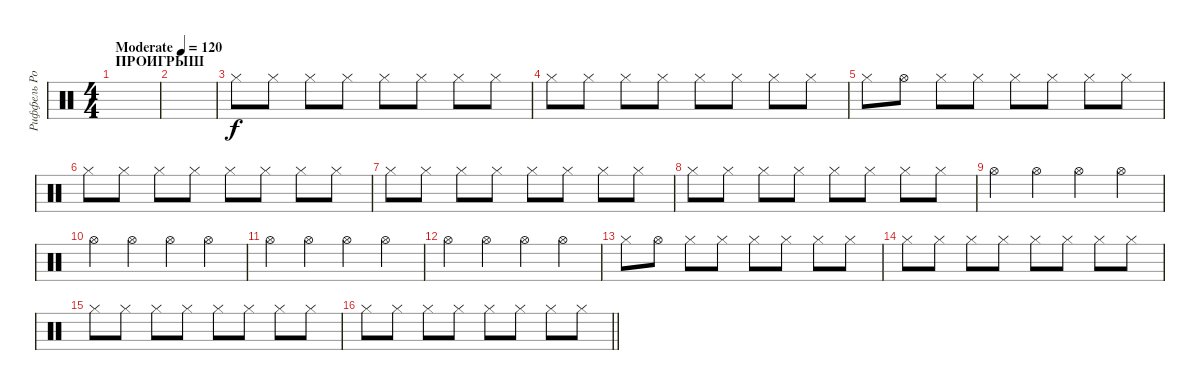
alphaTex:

\track ("Риффель Роман (хэты)" "Риффель Ро") {instrument percussion}
\staff {score}
\articulation defaults
\ts (4 4)
\section ("" "ПРОИГРЫШ")
\tempo (120 "Moderate")
\clef neutral
\ks c
|
|
"Hi-Hat (closed)".8 "Hi-Hat (closed)".8 "Hi-Hat (closed)".8 "Hi-Hat (closed)".8 "Hi-Hat (closed)".8 "Hi-Hat (closed)".8 "Hi-Hat (closed)".8 "Hi-Hat (closed)".8 |
"Hi-Hat (closed)".8 "Hi-Hat (closed)".8 "Hi-Hat (closed)".8 "Hi-Hat (closed)".8 "Hi-Hat (closed)".8 "Hi-Hat (closed)".8 "Hi-Hat (closed)".8 "Hi-Hat (closed)".8 |
"Hi-Hat (closed)".8 "Hi-Hat (open)".8 "Hi-Hat (closed)".8 "Hi-Hat (closed)".8 "Hi-Hat (closed)".8 "Hi-Hat (closed)".8 "Hi-Hat (closed)".8 "Hi-Hat (closed)".8 |
"Hi-Hat (closed)".8 "Hi-Hat (closed)".8 "Hi-Hat (closed)".8 "Hi-Hat (closed)".8 "Hi-Hat (closed)".8 "Hi-Hat (closed)".8 "Hi-Hat (closed)".8 "Hi-Hat (closed)".8 |
"Hi-Hat (closed)".8 "Hi-Hat (closed)".8 "Hi-Hat (closed)".8 "Hi-Hat (closed)".8 "Hi-Hat (closed)".8 "Hi-Hat (closed)".8 "Hi-Hat (closed)".8 "Hi-Hat (closed)".8 |
"Hi-Hat (closed)".8 "Hi-Hat (closed)".8 "Hi-Hat (closed)".8 "Hi-Hat (closed)".8 "Hi-Hat (closed)".8 "Hi-Hat (closed)".8 "Hi-Hat (closed)".8 "Hi-Hat (closed)".8 |
"Hi-Hat (open)".4 "Hi-Hat (open)".4 "Hi-Hat (open)".4 "Hi-Hat (open)".4 |
"Hi-Hat (open)".4 "Hi-Hat (open)".4 "Hi-Hat (open)".4 "Hi-Hat (open)".4 |
"Hi-Hat (open)".4 "Hi-Hat (open)".4 "Hi-Hat (open)".4 "Hi-Hat (open)".4 |
"Hi-Hat (open)".4 "Hi-Hat (open)".4 "Hi-Hat (open)".4 "Hi-Hat (open)".4 |
"Hi-Hat (closed)".8 "Hi-Hat (open)".8 "Hi-Hat (closed)".8 "Hi-Hat (closed)".8 "Hi-Hat (closed)".8 "Hi-Hat (closed)".8 "Hi-Hat (closed)".8 "Hi-Hat (closed)".8 |
"Hi-Hat (closed)".8 "Hi-Hat (closed)".8 "Hi-Hat (closed)".8 "Hi-Hat (closed)".8 "Hi-Hat (closed)".8 "Hi-Hat (closed)".8 "Hi-Hat (closed)".8 "Hi-Hat (closed)".8 |
"Hi-Hat (closed)".8 "Hi-Hat (closed)".8 "Hi-Hat (closed)".8 "Hi-Hat (closed)".8 "Hi-Hat (closed)".8 "Hi-Hat (closed)".8 "Hi-Hat (closed)".8 "Hi-Hat (closed)".8 |
\barLineRight lightlight "Hi-Hat (closed)".8 "Hi-Hat (closed)".8 "Hi-Hat (closed)".8 "Hi-Hat (closed)".8 "Hi-Hat (closed)".8 "Hi-Hat (closed)".8 "Hi-Hat (closed)".8 "Hi-Hat (closed)".8
